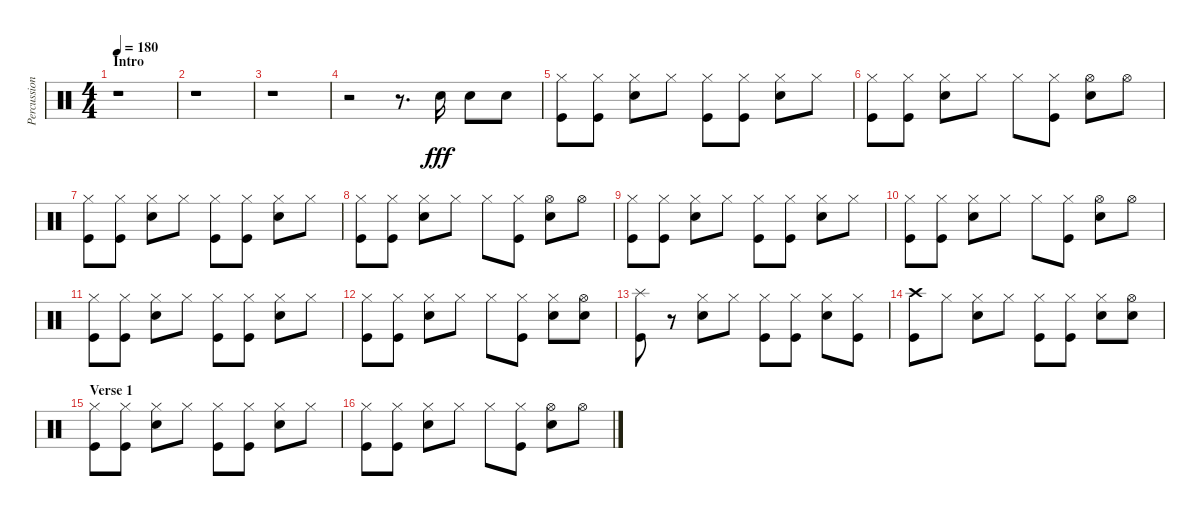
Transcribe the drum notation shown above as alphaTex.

\track ("Percussion" "Percussion") {instrument percussion}
\staff {score}
\articulation defaults
\ts (4 4)
\section ("" "Intro")
\tempo 180
\clef neutral
\ks c
r.1{dy fff} |
r.1 |
r.1 |
r.2 r.8{d} "Snare (hit) 2".16 "Snare (hit) 2".8 "Snare (hit) 2".8 |
("Hi-Hat (closed)" "Kick (hit)").8 ("Hi-Hat (closed)" "Kick (hit)").8 ("Hi-Hat (closed)" "Snare (hit) 2").8 "Hi-Hat (closed)".8 ("Hi-Hat (closed)" "Kick (hit)").8 ("Hi-Hat (closed)" "Kick (hit)").8 ("Hi-Hat (closed)" "Snare (hit) 2").8 "Hi-Hat (closed)".8 |
("Hi-Hat (closed)" "Kick (hit)").8 ("Hi-Hat (closed)" "Kick (hit)").8 ("Hi-Hat (closed)" "Snare (hit) 2").8 "Hi-Hat (closed)".8 "Hi-Hat (closed)".8 ("Hi-Hat (closed)" "Kick (hit)").8 ("Hi-Hat (open)" "Snare (hit) 2").8 "Hi-Hat (open)".8 |
("Hi-Hat (closed)" "Kick (hit)").8 ("Hi-Hat (closed)" "Kick (hit)").8 ("Hi-Hat (closed)" "Snare (hit) 2").8 "Hi-Hat (closed)".8 ("Hi-Hat (closed)" "Kick (hit)").8 ("Hi-Hat (closed)" "Kick (hit)").8 ("Hi-Hat (closed)" "Snare (hit) 2").8 "Hi-Hat (closed)".8 |
("Hi-Hat (closed)" "Kick (hit)").8 ("Hi-Hat (closed)" "Kick (hit)").8 ("Hi-Hat (closed)" "Snare (hit) 2").8 "Hi-Hat (closed)".8 "Hi-Hat (closed)".8 ("Hi-Hat (closed)" "Kick (hit)").8 ("Hi-Hat (open)" "Snare (hit) 2").8 "Hi-Hat (open)".8 |
("Hi-Hat (closed)" "Kick (hit)").8 ("Hi-Hat (closed)" "Kick (hit)").8 ("Hi-Hat (closed)" "Snare (hit) 2").8 "Hi-Hat (closed)".8 ("Hi-Hat (closed)" "Kick (hit)").8 ("Hi-Hat (closed)" "Kick (hit)").8 ("Hi-Hat (closed)" "Snare (hit) 2").8 "Hi-Hat (closed)".8 |
("Hi-Hat (closed)" "Kick (hit)").8 ("Hi-Hat (closed)" "Kick (hit)").8 ("Hi-Hat (closed)" "Snare (hit) 2").8 "Hi-Hat (closed)".8 "Hi-Hat (closed)".8 ("Hi-Hat (closed)" "Kick (hit)").8 ("Hi-Hat (open)" "Snare (hit) 2").8 "Hi-Hat (open)".8 |
("Hi-Hat (closed)" "Kick (hit)").8 ("Hi-Hat (closed)" "Kick (hit)").8 ("Hi-Hat (closed)" "Snare (hit) 2").8 "Hi-Hat (closed)".8 ("Hi-Hat (closed)" "Kick (hit)").8 ("Hi-Hat (closed)" "Kick (hit)").8 ("Hi-Hat (closed)" "Snare (hit) 2").8 "Hi-Hat (closed)".8 |
("Hi-Hat (closed)" "Kick (hit)").8 ("Hi-Hat (closed)" "Kick (hit)").8 ("Hi-Hat (closed)" "Snare (hit) 2").8 "Hi-Hat (closed)".8 "Hi-Hat (closed)".8 ("Hi-Hat (closed)" "Kick (hit)").8 ("Hi-Hat (closed)" "Snare (hit) 2").8 ("Hi-Hat (open)" "Snare (hit) 2").8 |
("Splash (hit)" "Kick (hit)").8 r.8 ("Hi-Hat (closed)" "Snare (hit) 2").8 "Hi-Hat (closed)".8 ("Hi-Hat (closed)" "Kick (hit)").8 ("Hi-Hat (closed)" "Kick (hit)").8 ("Hi-Hat (closed)" "Snare (hit) 2").8 ("Hi-Hat (closed)" "Kick (hit)").8 |
("Crash high (hit)" "Kick (hit)").8 "Hi-Hat (closed)".8 ("Hi-Hat (closed)" "Snare (hit) 2").8 "Hi-Hat (closed)".8 ("Hi-Hat (closed)" "Kick (hit)").8 ("Hi-Hat (closed)" "Kick (hit)").8 ("Hi-Hat (closed)" "Snare (hit) 2").8 ("Hi-Hat (open)" "Snare (hit) 2").8 |
\section ("" "Verse 1")
("Hi-Hat (closed)" "Kick (hit)").8 ("Hi-Hat (closed)" "Kick (hit)").8 ("Hi-Hat (closed)" "Snare (hit) 2").8 "Hi-Hat (closed)".8 ("Hi-Hat (closed)" "Kick (hit)").8 ("Hi-Hat (closed)" "Kick (hit)").8 ("Hi-Hat (closed)" "Snare (hit) 2").8 "Hi-Hat (closed)".8 |
("Hi-Hat (closed)" "Kick (hit)").8 ("Hi-Hat (closed)" "Kick (hit)").8 ("Hi-Hat (closed)" "Snare (hit) 2").8 "Hi-Hat (closed)".8 "Hi-Hat (closed)".8 ("Hi-Hat (closed)" "Kick (hit)").8 ("Hi-Hat (open)" "Snare (hit) 2").8 "Hi-Hat (open)".8
